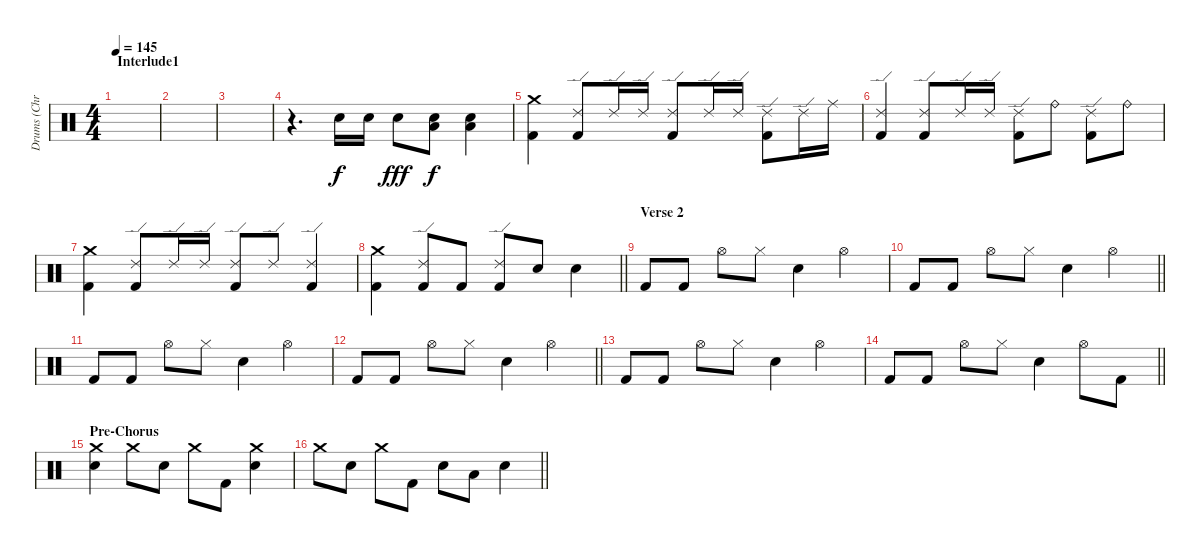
\track ("Drums (Chris)" "Drums (Chr") {instrument percussion}
\staff {score}
\articulation defaults
\ts (4 4)
\section ("" "Interlude1")
\tempo 145
\clef neutral
\ks c
|
|
|
r.4{d} "Electric Snare (hit)".16 "Electric Snare (hit)".16 "Electric Snare (hit)".8{dy fff} ("Low Floor Tom (hit)" "Electric Snare (hit)").8{dy f} ("Low Floor Tom (hit)" "Electric Snare (hit)").4 |
("Crash medium (hit)" "Kick (hit) 2").4 ("Ride (edge) 2" "Kick (hit) 2").8 "Ride (edge) 2".16 "Ride (edge) 2".16 ("Ride (edge) 2" "Kick (hit) 2").8 "Ride (edge) 2".16 "Ride (edge) 2".16 ("Ride (edge) 2" "Kick (hit) 2").8 "Ride (edge) 2".16 "Ride (middle)".16 |
("Ride (edge) 2" "Kick (hit) 2").4 ("Ride (edge) 2" "Kick (hit) 2").8 "Ride (edge) 2".16 "Ride (edge) 2".16 ("Ride (edge) 2" "Kick (hit) 2").8 "Ride (bell)".8 ("Ride (edge) 2" "Kick (hit) 2").8 "Ride (bell)".8 |
("Crash medium (hit)" "Kick (hit) 2").4 ("Ride (edge) 2" "Kick (hit) 2").8 "Ride (edge) 2".16 "Ride (edge) 2".16 ("Ride (edge) 2" "Kick (hit) 2").8 "Ride (edge) 2".8 ("Ride (edge) 2" "Kick (hit) 2").4 |
\barLineRight lightlight
("Crash medium (hit)" "Kick (hit) 2").4 ("Ride (edge) 2" "Kick (hit) 2").8 "Kick (hit) 2".8 ("Ride (edge) 2" "Kick (hit) 2").8 "Electric Snare (hit)".8 "Electric Snare (hit)".4 |
\section ("" "Verse 2")
"Kick (hit) 2".8 "Kick (hit) 2".8 "Hi-Hat (open)".8 "Hi-Hat (closed)".8 "Electric Snare (hit)".4 "Hi-Hat (open)".4 |
\barLineRight lightlight "Kick (hit) 2".8 "Kick (hit) 2".8 "Hi-Hat (open)".8 "Hi-Hat (closed)".8 "Electric Snare (hit)".4 "Hi-Hat (open)".4
|
"Kick (hit) 2".8 "Kick (hit) 2".8 "Hi-Hat (open)".8 "Hi-Hat (closed)".8 "Electric Snare (hit)".4 "Hi-Hat (open)".4 |
\barLineRight lightlight "Kick (hit) 2".8 "Kick (hit) 2".8 "Hi-Hat (open)".8 "Hi-Hat (closed)".8 "Electric Snare (hit)".4 "Hi-Hat (open)".4
|
"Kick (hit) 2".8 "Kick (hit) 2".8 "Hi-Hat (open)".8 "Hi-Hat (closed)".8 "Electric Snare (hit)".4 "Hi-Hat (open)".4 |
\barLineRight lightlight "Kick (hit) 2".8 "Kick (hit) 2".8 "Hi-Hat (open)".8 "Hi-Hat (closed)".8 "Electric Snare (hit)".4 "Hi-Hat (open)".8 "Kick (hit) 2".8
|
\section ("" "Pre-Chorus")
("Crash medium (hit)" "Electric Snare (hit)").4 "Crash medium (hit)".8 "Electric Snare (hit)".8 "Crash medium (hit)".8 "Kick (hit) 2".8 ("Crash medium (hit)" "Electric Snare (hit)").4 |
\barLineRight lightlight "Crash medium (hit)".8 "Electric Snare (hit)".8 "Crash medium (hit)".8 "Kick (hit) 2".8 "Electric Snare (hit)".8 "Low Floor Tom (hit)".8 "Electric Snare (hit)".4
